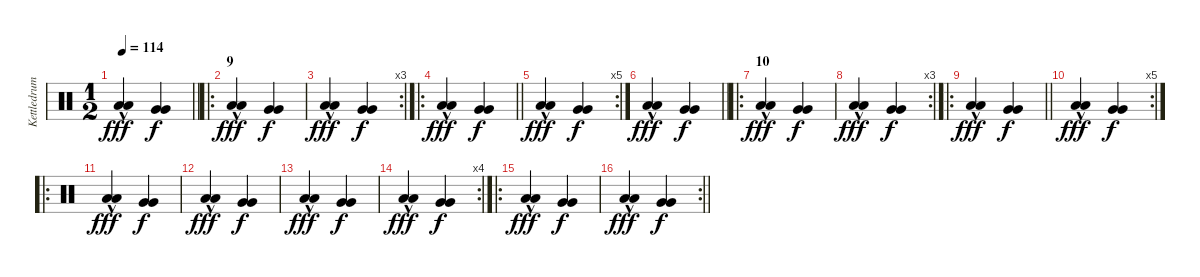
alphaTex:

\track ("Kettledrum" "Kettledrum") {instrument percussion}
\staff {score}
\articulation defaults
\ts (1 2)
\tempo 114
\clef neutral
\barLineRight lightlight
\ks c
("Low Floor Tom (hit)"{hac} "Low Floor Tom (hit)"{hac}).4{dy fff} ("Very Low Tom (hit)" "Very Low Tom (hit)").4{dy f} |
\ro
\section ("" "9")
("Low Floor Tom (hit)"{hac} "Low Floor Tom (hit)"{hac}).4{dy fff} ("Very Low Tom (hit)" "Very Low Tom (hit)").4{dy f} |
\rc 3
("Low Floor Tom (hit)"{hac} "Low Floor Tom (hit)"{hac}).4{dy fff} ("Very Low Tom (hit)" "Very Low Tom (hit)").4{dy f} |
\ro
\barLineRight lightlight
("Low Floor Tom (hit)"{hac} "Low Floor Tom (hit)"{hac}).4{dy fff} ("Very Low Tom (hit)" "Very Low Tom (hit)").4{dy f} |
\rc 5
("Low Floor Tom (hit)"{hac} "Low Floor Tom (hit)"{hac}).4{dy fff} ("Very Low Tom (hit)" "Very Low Tom (hit)").4{dy f} |
\barLineRight lightlight
("Low Floor Tom (hit)"{hac} "Low Floor Tom (hit)"{hac}).4{dy fff} ("Very Low Tom (hit)" "Very Low Tom (hit)").4{dy f} |
\ro
\section ("" "10")
("Low Floor Tom (hit)"{hac} "Low Floor Tom (hit)"{hac}).4{dy fff} ("Very Low Tom (hit)" "Very Low Tom (hit)").4{dy f} |
\rc 3
("Low Floor Tom (hit)"{hac} "Low Floor Tom (hit)"{hac}).4{dy fff} ("Very Low Tom (hit)" "Very Low Tom (hit)").4{dy f} |
\ro
\barLineRight lightlight
("Low Floor Tom (hit)"{hac} "Low Floor Tom (hit)"{hac}).4{dy fff} ("Very Low Tom (hit)" "Very Low Tom (hit)").4{dy f} |
\rc 5
("Low Floor Tom (hit)"{hac} "Low Floor Tom (hit)"{hac}).4{dy fff} ("Very Low Tom (hit)" "Very Low Tom (hit)").4{dy f} |
\ro
("Low Floor Tom (hit)"{hac} "Low Floor Tom (hit)"{hac}).4{dy fff} ("Very Low Tom (hit)" "Very Low Tom (hit)").4{dy f} |
("Low Floor Tom (hit)"{hac} "Low Floor Tom (hit)"{hac}).4{dy fff} ("Very Low Tom (hit)" "Very Low Tom (hit)").4{dy f} |
("Low Floor Tom (hit)"{hac} "Low Floor Tom (hit)"{hac}).4{dy fff} ("Very Low Tom (hit)" "Very Low Tom (hit)").4{dy f} |
\rc 4
("Low Floor Tom (hit)"{hac} "Low Floor Tom (hit)"{hac}).4{dy fff} ("Very Low Tom (hit)" "Very Low Tom (hit)").4{dy f} |
\ro
("Low Floor Tom (hit)"{hac} "Low Floor Tom (hit)"{hac}).4{dy fff} ("Very Low Tom (hit)" "Very Low Tom (hit)").4{dy f} |
\rc 2
\barLineRight lightlight
("Low Floor Tom (hit)"{hac} "Low Floor Tom (hit)"{hac}).4{dy fff} ("Very Low Tom (hit)" "Very Low Tom (hit)").4{dy f}
